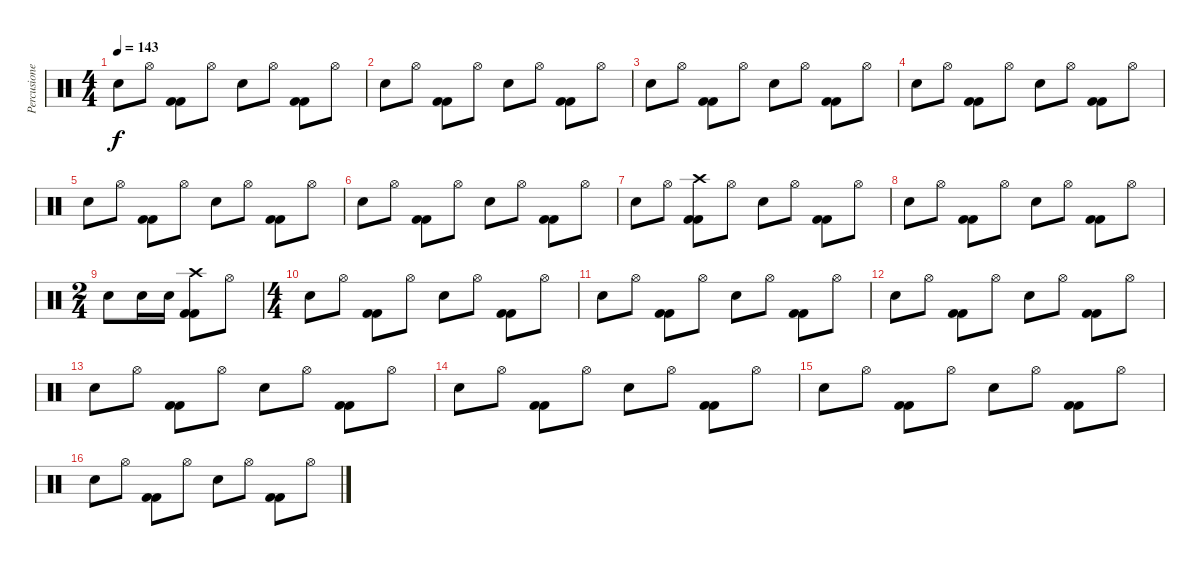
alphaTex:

\track ("Percusiones" "Percusione") {instrument percussion}
\staff {score}
\articulation defaults
\ts (4 4)
\tempo 143
\clef neutral
\ks c "Snare (hit) 2".8{dy f} "Hi-Hat (open)".8
("Kick (hit) 2" "Kick (hit) 2").8 "Hi-Hat (open)".8 "Snare (hit) 2".8 "Hi-Hat (open)".8 ("Kick (hit) 2" "Kick (hit) 2").8 "Hi-Hat (open)".8 |
"Snare (hit) 2".8 "Hi-Hat (open)".8 ("Kick (hit) 2" "Kick (hit) 2").8 "Hi-Hat (open)".8 "Snare (hit) 2".8 "Hi-Hat (open)".8 ("Kick (hit) 2" "Kick (hit) 2").8 "Hi-Hat (open)".8 |
"Snare (hit) 2".8 "Hi-Hat (open)".8 ("Kick (hit) 2" "Kick (hit) 2").8 "Hi-Hat (open)".8 "Snare (hit) 2".8 "Hi-Hat (open)".8 ("Kick (hit) 2" "Kick (hit) 2").8 "Hi-Hat (open)".8 |
"Snare (hit) 2".8 "Hi-Hat (open)".8 ("Kick (hit) 2" "Kick (hit) 2").8 "Hi-Hat (open)".8 "Snare (hit) 2".8 "Hi-Hat (open)".8 ("Kick (hit) 2" "Kick (hit) 2").8 "Hi-Hat (open)".8 |
"Snare (hit) 2".8 "Hi-Hat (open)".8 ("Kick (hit) 2" "Kick (hit) 2").8 "Hi-Hat (open)".8 "Snare (hit) 2".8 "Hi-Hat (open)".8 ("Kick (hit) 2" "Kick (hit) 2").8 "Hi-Hat (open)".8 |
"Snare (hit) 2".8 "Hi-Hat (open)".8 ("Kick (hit) 2" "Kick (hit) 2").8 "Hi-Hat (open)".8 "Snare (hit) 2".8 "Hi-Hat (open)".8 ("Kick (hit) 2" "Kick (hit) 2").8 "Hi-Hat (open)".8 |
"Snare (hit) 2".8 "Hi-Hat (open)".8 ("Kick (hit) 2" "Kick (hit) 2" "Crash high (hit)").8 "Hi-Hat (open)".8 "Snare (hit) 2".8 "Hi-Hat (open)".8 ("Kick (hit) 2" "Kick (hit) 2").8 "Hi-Hat (open)".8 |
"Snare (hit) 2".8 "Hi-Hat (open)".8 ("Kick (hit) 2" "Kick (hit) 2").8 "Hi-Hat (open)".8 "Snare (hit) 2".8 "Hi-Hat (open)".8 ("Kick (hit) 2" "Kick (hit) 2").8 "Hi-Hat (open)".8 |
\ts (2 4)
"Snare (hit) 2".8 "Snare (hit) 2".16 "Snare (hit) 2".16 ("Crash high (hit)" "Kick (hit) 2" "Kick (hit) 2").8 "Hi-Hat (open)".8 |
\ts (4 4)
"Snare (hit) 2".8 "Hi-Hat (open)".8 ("Kick (hit) 2" "Kick (hit) 2").8 "Hi-Hat (open)".8 "Snare (hit) 2".8 "Hi-Hat (open)".8 ("Kick (hit) 2" "Kick (hit) 2").8 "Hi-Hat (open)".8 |
"Snare (hit) 2".8 "Hi-Hat (open)".8 ("Kick (hit) 2" "Kick (hit) 2").8 "Hi-Hat (open)".8 "Snare (hit) 2".8 "Hi-Hat (open)".8 ("Kick (hit) 2" "Kick (hit) 2").8 "Hi-Hat (open)".8 |
"Snare (hit) 2".8 "Hi-Hat (open)".8 ("Kick (hit) 2" "Kick (hit) 2").8 "Hi-Hat (open)".8 "Snare (hit) 2".8 "Hi-Hat (open)".8 ("Kick (hit) 2" "Kick (hit) 2").8 "Hi-Hat (open)".8 |
"Snare (hit) 2".8 "Hi-Hat (open)".8 ("Kick (hit) 2" "Kick (hit) 2").8 "Hi-Hat (open)".8 "Snare (hit) 2".8 "Hi-Hat (open)".8 ("Kick (hit) 2" "Kick (hit) 2").8 "Hi-Hat (open)".8 |
"Snare (hit) 2".8 "Hi-Hat (open)".8 ("Kick (hit) 2" "Kick (hit) 2").8 "Hi-Hat (open)".8 "Snare (hit) 2".8 "Hi-Hat (open)".8 ("Kick (hit) 2" "Kick (hit) 2").8 "Hi-Hat (open)".8 |
"Snare (hit) 2".8 "Hi-Hat (open)".8 ("Kick (hit) 2" "Kick (hit) 2").8 "Hi-Hat (open)".8 "Snare (hit) 2".8 "Hi-Hat (open)".8 ("Kick (hit) 2" "Kick (hit) 2").8 "Hi-Hat (open)".8 |
"Snare (hit) 2".8 "Hi-Hat (open)".8 ("Kick (hit) 2" "Kick (hit) 2").8 "Hi-Hat (open)".8 "Snare (hit) 2".8 "Hi-Hat (open)".8 ("Kick (hit) 2" "Kick (hit) 2").8 "Hi-Hat (open)".8
